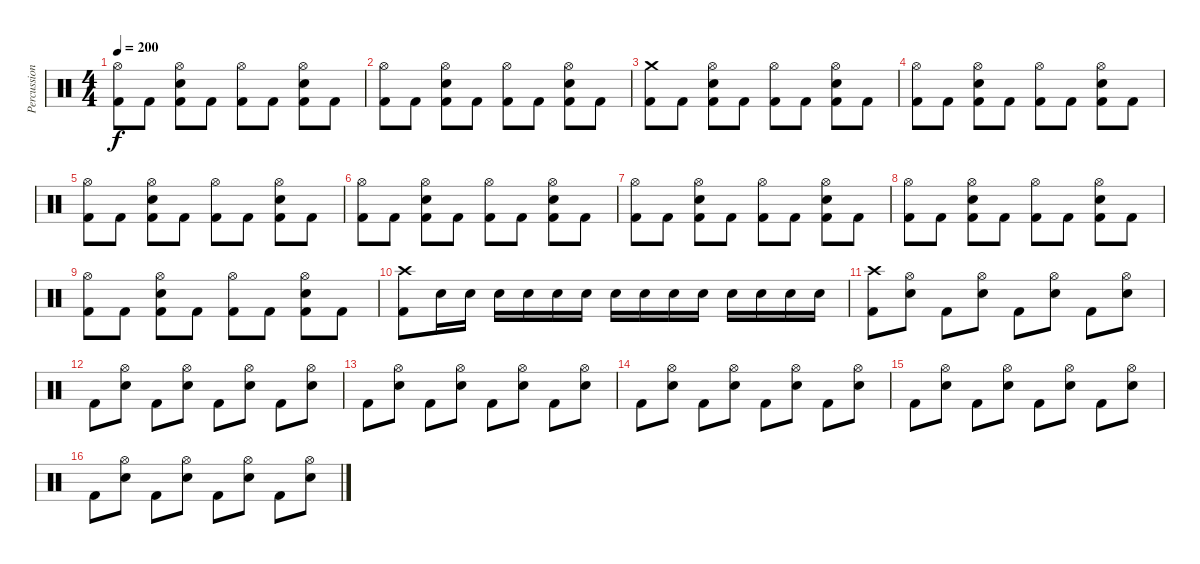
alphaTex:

\track ("Percussion" "Percussion") {instrument percussion}
\staff {score}
\articulation defaults
\ts (4 4)
\tempo 200
\clef neutral
\ks c
("Hi-Hat (open)" "Kick (hit) 2").8{dy f} "Kick (hit) 2".8 ("Hi-Hat (open)" "Electric Snare (hit)" "Kick (hit) 2").8 "Kick (hit) 2".8 ("Hi-Hat (open)" "Kick (hit) 2").8 "Kick (hit) 2".8 ("Hi-Hat (open)" "Electric Snare (hit)" "Kick (hit) 2").8 "Kick (hit) 2".8 |
("Hi-Hat (open)" "Kick (hit) 2").8 "Kick (hit) 2".8 ("Hi-Hat (open)" "Electric Snare (hit)" "Kick (hit) 2").8 "Kick (hit) 2".8 ("Hi-Hat (open)" "Kick (hit) 2").8 "Kick (hit) 2".8 ("Hi-Hat (open)" "Electric Snare (hit)" "Kick (hit) 2").8 "Kick (hit) 2".8 |
("Crash medium (hit)" "Kick (hit) 2").8 "Kick (hit) 2".8 ("Hi-Hat (open)" "Electric Snare (hit)" "Kick (hit) 2").8 "Kick (hit) 2".8 ("Hi-Hat (open)" "Kick (hit) 2").8 "Kick (hit) 2".8 ("Hi-Hat (open)" "Electric Snare (hit)" "Kick (hit) 2").8 "Kick (hit) 2".8 |
("Hi-Hat (open)" "Kick (hit) 2").8 "Kick (hit) 2".8 ("Hi-Hat (open)" "Electric Snare (hit)" "Kick (hit) 2").8 "Kick (hit) 2".8 ("Hi-Hat (open)" "Kick (hit) 2").8 "Kick (hit) 2".8 ("Hi-Hat (open)" "Electric Snare (hit)" "Kick (hit) 2").8 "Kick (hit) 2".8 |
("Hi-Hat (open)" "Kick (hit) 2").8 "Kick (hit) 2".8 ("Hi-Hat (open)" "Electric Snare (hit)" "Kick (hit) 2").8 "Kick (hit) 2".8 ("Hi-Hat (open)" "Kick (hit) 2").8 "Kick (hit) 2".8 ("Hi-Hat (open)" "Electric Snare (hit)" "Kick (hit) 2").8 "Kick (hit) 2".8 |
("Hi-Hat (open)" "Kick (hit) 2").8 "Kick (hit) 2".8 ("Hi-Hat (open)" "Electric Snare (hit)" "Kick (hit) 2").8 "Kick (hit) 2".8 ("Hi-Hat (open)" "Kick (hit) 2").8 "Kick (hit) 2".8 ("Hi-Hat (open)" "Electric Snare (hit)" "Kick (hit) 2").8 "Kick (hit) 2".8 |
("Hi-Hat (open)" "Kick (hit) 2").8 "Kick (hit) 2".8 ("Hi-Hat (open)" "Electric Snare (hit)" "Kick (hit) 2").8 "Kick (hit) 2".8 ("Hi-Hat (open)" "Kick (hit) 2").8 "Kick (hit) 2".8 ("Hi-Hat (open)" "Electric Snare (hit)" "Kick (hit) 2").8 "Kick (hit) 2".8 |
("Hi-Hat (open)" "Kick (hit) 2").8 "Kick (hit) 2".8 ("Hi-Hat (open)" "Electric Snare (hit)" "Kick (hit) 2").8 "Kick (hit) 2".8 ("Hi-Hat (open)" "Kick (hit) 2").8 "Kick (hit) 2".8 ("Hi-Hat (open)" "Electric Snare (hit)" "Kick (hit) 2").8 "Kick (hit) 2".8 |
("Hi-Hat (open)" "Kick (hit) 2").8 "Kick (hit) 2".8 ("Hi-Hat (open)" "Electric Snare (hit)" "Kick (hit) 2").8 "Kick (hit) 2".8 ("Hi-Hat (open)" "Kick (hit) 2").8 "Kick (hit) 2".8 ("Hi-Hat (open)" "Electric Snare (hit)" "Kick (hit) 2").8 "Kick (hit) 2".8 |
("Crash high (hit)" "Kick (hit) 2").8 "Electric Snare (hit)".16 "Electric Snare (hit)".16 "Electric Snare (hit)".16 "Electric Snare (hit)".16 "Electric Snare (hit)".16 "Electric Snare (hit)".16 "Electric Snare (hit)".16 "Electric Snare (hit)".16 "Electric Snare (hit)".16 "Electric Snare (hit)".16 "Electric Snare (hit)".16 "Electric Snare (hit)".16 "Electric Snare (hit)".16 "Electric Snare (hit)".16 |
("Crash high (hit)" "Kick (hit) 2").8 ("Hi-Hat (open)" "Electric Snare (hit)").8 "Kick (hit) 2".8 ("Hi-Hat (open)" "Electric Snare (hit)").8 "Kick (hit) 2".8 ("Hi-Hat (open)" "Electric Snare (hit)").8 "Kick (hit) 2".8 ("Hi-Hat (open)" "Electric Snare (hit)").8 |
"Kick (hit) 2".8 ("Hi-Hat (open)" "Electric Snare (hit)").8 "Kick (hit) 2".8 ("Hi-Hat (open)" "Electric Snare (hit)").8 "Kick (hit) 2".8 ("Hi-Hat (open)" "Electric Snare (hit)").8 "Kick (hit) 2".8 ("Hi-Hat (open)" "Electric Snare (hit)").8 |
"Kick (hit) 2".8 ("Hi-Hat (open)" "Electric Snare (hit)").8 "Kick (hit) 2".8 ("Hi-Hat (open)" "Electric Snare (hit)").8 "Kick (hit) 2".8 ("Hi-Hat (open)" "Electric Snare (hit)").8 "Kick (hit) 2".8 ("Hi-Hat (open)" "Electric Snare (hit)").8 |
"Kick (hit) 2".8 ("Hi-Hat (open)" "Electric Snare (hit)").8 "Kick (hit) 2".8 ("Hi-Hat (open)" "Electric Snare (hit)").8 "Kick (hit) 2".8 ("Hi-Hat (open)" "Electric Snare (hit)").8 "Kick (hit) 2".8 ("Hi-Hat (open)" "Electric Snare (hit)").8 |
"Kick (hit) 2".8 ("Hi-Hat (open)" "Electric Snare (hit)").8 "Kick (hit) 2".8 ("Hi-Hat (open)" "Electric Snare (hit)").8 "Kick (hit) 2".8 ("Hi-Hat (open)" "Electric Snare (hit)").8 "Kick (hit) 2".8 ("Hi-Hat (open)" "Electric Snare (hit)").8 |
"Kick (hit) 2".8 ("Hi-Hat (open)" "Electric Snare (hit)").8 "Kick (hit) 2".8 ("Hi-Hat (open)" "Electric Snare (hit)").8 "Kick (hit) 2".8 ("Hi-Hat (open)" "Electric Snare (hit)").8 "Kick (hit) 2".8 ("Hi-Hat (open)" "Electric Snare (hit)").8
